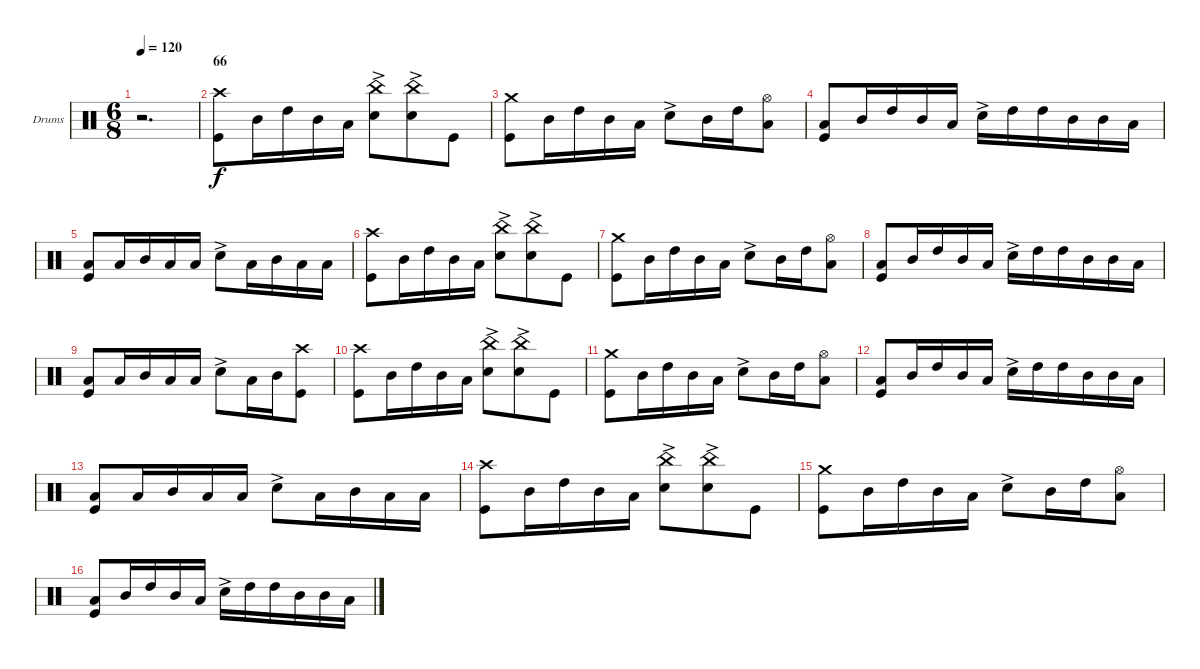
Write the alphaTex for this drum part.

\bracketExtendMode groupsimilarinstruments
\firstSystemTrackNameOrientation horizontal
\otherSystemsTrackNameOrientation horizontal
\track ("Drumkit" "Drums") {instrument percussion}
\staff {score}
\articulation defaults
\ts (6 8)
\tempo 120
\clef neutral
\ks c
r.2{d dy mf} |
\section ("" "66")
("Kick (hit)" "Crash high (hit)").8{dy f} "Mid Tom (hit)".16 "High Tom (hit)".16 "Mid Tom (hit)".16 "Low Tom (hit)".16 ("Snare (hit) 2"{ac} "China (hit)").8 ("Snare (hit) 2"{ac} "China (hit)").8 "Kick (hit)".8 |
("Kick (hit)" "Crash medium (hit)").8 "Mid Tom (hit)".16 "High Tom (hit)".16 "Mid Tom (hit)".16 "Low Tom (hit)".16 "Snare (hit) 2"{ac}.8 "Mid Tom (hit)".16 "High Tom (hit)".16 ("Low Tom (hit)" "Hi-Hat (open)").8 |
("Kick (hit)" "Low Tom (hit)").8 "Mid Tom (hit)".16 "High Tom (hit)".16 "Mid Tom (hit)".16 "Low Tom (hit)".16 "Snare (hit) 2"{ac}.16 "High Tom (hit)".16 "High Tom (hit)".16 "Mid Tom (hit)".16 "Mid Tom (hit)".16 "Low Tom (hit)".16 |
("Kick (hit)" "Low Tom (hit)").8 "Low Tom (hit)".16 "Mid Tom (hit)".16 "Low Tom (hit)".16 "Low Tom (hit)".16 "Snare (hit) 2"{ac}.8 "Low Tom (hit)".16 "Mid Tom (hit)".16 "Low Tom (hit)".16 "Low Tom (hit)".16 |
("Kick (hit)" "Crash high (hit)").8 "Mid Tom (hit)".16 "High Tom (hit)".16 "Mid Tom (hit)".16 "Low Tom (hit)".16 ("Snare (hit) 2"{ac} "China (hit)").8 ("Snare (hit) 2"{ac} "China (hit)").8 "Kick (hit)".8 |
("Kick (hit)" "Crash medium (hit)").8 "Mid Tom (hit)".16 "High Tom (hit)".16 "Mid Tom (hit)".16 "Low Tom (hit)".16 "Snare (hit) 2"{ac}.8 "Mid Tom (hit)".16 "High Tom (hit)".16 ("Low Tom (hit)" "Hi-Hat (open)").8 |
("Kick (hit)" "Low Tom (hit)").8 "Mid Tom (hit)".16 "High Tom (hit)".16 "Mid Tom (hit)".16 "Low Tom (hit)".16 "Snare (hit) 2"{ac}.16 "High Tom (hit)".16 "High Tom (hit)".16 "Mid Tom (hit)".16 "Mid Tom (hit)".16 "Low Tom (hit)".16 |
("Kick (hit)" "Low Tom (hit)").8 "Low Tom (hit)".16 "Mid Tom (hit)".16 "Low Tom (hit)".16 "Low Tom (hit)".16 "Snare (hit) 2"{ac}.8 "Low Tom (hit)".16 "Mid Tom (hit)".16 ("Kick (hit)" "Crash high (hit)").8 |
("Kick (hit)" "Crash high (hit)").8 "Mid Tom (hit)".16 "High Tom (hit)".16 "Mid Tom (hit)".16 "Low Tom (hit)".16 ("Snare (hit) 2"{ac} "China (hit)").8 ("Snare (hit) 2"{ac} "China (hit)").8 "Kick (hit)".8 |
("Kick (hit)" "Crash medium (hit)").8 "Mid Tom (hit)".16 "High Tom (hit)".16 "Mid Tom (hit)".16 "Low Tom (hit)".16 "Snare (hit) 2"{ac}.8 "Mid Tom (hit)".16 "High Tom (hit)".16 ("Low Tom (hit)" "Hi-Hat (open)").8 |
("Kick (hit)" "Low Tom (hit)").8 "Mid Tom (hit)".16 "High Tom (hit)".16 "Mid Tom (hit)".16 "Low Tom (hit)".16 "Snare (hit) 2"{ac}.16 "High Tom (hit)".16 "High Tom (hit)".16 "Mid Tom (hit)".16 "Mid Tom (hit)".16 "Low Tom (hit)".16 |
("Kick (hit)" "Low Tom (hit)").8 "Low Tom (hit)".16 "Mid Tom (hit)".16 "Low Tom (hit)".16 "Low Tom (hit)".16 "Snare (hit) 2"{ac}.8 "Low Tom (hit)".16 "Mid Tom (hit)".16 "Low Tom (hit)".16 "Low Tom (hit)".16 |
("Kick (hit)" "Crash high (hit)").8 "Mid Tom (hit)".16 "High Tom (hit)".16 "Mid Tom (hit)".16 "Low Tom (hit)".16 ("Snare (hit) 2"{ac} "China (hit)").8 ("Snare (hit) 2"{ac} "China (hit)").8 "Kick (hit)".8 |
("Kick (hit)" "Crash medium (hit)").8 "Mid Tom (hit)".16 "High Tom (hit)".16 "Mid Tom (hit)".16 "Low Tom (hit)".16 "Snare (hit) 2"{ac}.8 "Mid Tom (hit)".16 "High Tom (hit)".16 ("Low Tom (hit)" "Hi-Hat (open)").8 |
("Kick (hit)" "Low Tom (hit)").8 "Mid Tom (hit)".16 "High Tom (hit)".16 "Mid Tom (hit)".16 "Low Tom (hit)".16 "Snare (hit) 2"{ac}.16 "High Tom (hit)".16 "High Tom (hit)".16 "Mid Tom (hit)".16 "Mid Tom (hit)".16 "Low Tom (hit)".16
